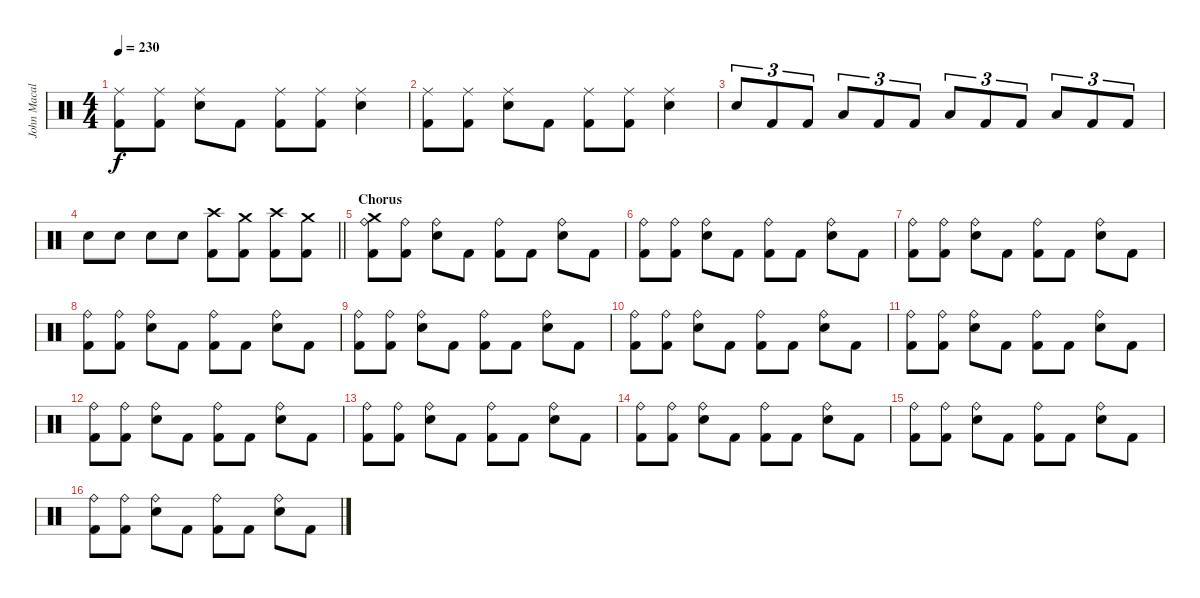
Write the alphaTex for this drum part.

\track ("John Macaluso" "John Macal") {instrument percussion}
\staff {score}
\articulation defaults
\ts (4 4)
\tempo 230
\clef neutral
\ks c
("Ride (middle)" "Kick (hit) 2").8{dy f} ("Ride (middle)" "Kick (hit) 2").8 ("Ride (middle)" "Snare (hit) 2").8 "Kick (hit) 2".8 ("Ride (middle)" "Kick (hit) 2").8 ("Ride (middle)" "Kick (hit) 2").8 ("Ride (middle)" "Snare (hit) 2").4 |
("Ride (middle)" "Kick (hit) 2").8 ("Ride (middle)" "Kick (hit) 2").8 ("Ride (middle)" "Snare (hit) 2").8 "Kick (hit) 2".8 ("Ride (middle)" "Kick (hit) 2").8 ("Ride (middle)" "Kick (hit) 2").8 ("Ride (middle)" "Snare (hit) 2").4 |
"Snare (hit) 2".8{tu (3 2)} "Kick (hit) 2".8{tu (3 2)} "Kick (hit) 2".8{tu (3 2)} "Low Tom (hit)".8{tu (3 2)} "Kick (hit) 2".8{tu (3 2)} "Kick (hit) 2".8{tu (3 2)} "Low Tom (hit)".8{tu (3 2)} "Kick (hit) 2".8{tu (3 2)} "Kick (hit) 2".8{tu (3 2)} "Low Tom (hit)".8{tu (3 2)} "Kick (hit) 2".8{tu (3 2)} "Kick (hit) 2".8{tu (3 2)} |
\barLineRight lightlight "Snare (hit) 2".8 "Snare (hit) 2".8 "Snare (hit) 2".8 "Snare (hit) 2".8
("Crash high (hit)" "Kick (hit) 2").8 ("Crash medium (hit)" "Kick (hit) 2").8 ("Crash high (hit)" "Kick (hit) 2").8 ("Crash medium (hit)" "Kick (hit) 2").8 |
\section ("" "Chorus")
("Crash medium (hit)" "Ride (bell)" "Kick (hit) 2").8 ("Ride (bell)" "Kick (hit) 2").8 ("Ride (bell)" "Snare (hit) 2").8 "Kick (hit) 2".8 ("Ride (bell)" "Kick (hit) 2").8 "Kick (hit) 2".8 ("Ride (bell)" "Snare (hit) 2").8 "Kick (hit) 2".8 |
("Ride (bell)" "Kick (hit) 2").8 ("Ride (bell)" "Kick (hit) 2").8 ("Ride (bell)" "Snare (hit) 2").8 "Kick (hit) 2".8 ("Ride (bell)" "Kick (hit) 2").8 "Kick (hit) 2".8 ("Ride (bell)" "Snare (hit) 2").8 "Kick (hit) 2".8 |
("Ride (bell)" "Kick (hit) 2").8 ("Ride (bell)" "Kick (hit) 2").8 ("Ride (bell)" "Snare (hit) 2").8 "Kick (hit) 2".8 ("Ride (bell)" "Kick (hit) 2").8 "Kick (hit) 2".8 ("Ride (bell)" "Snare (hit) 2").8 "Kick (hit) 2".8 |
("Ride (bell)" "Kick (hit) 2").8 ("Ride (bell)" "Kick (hit) 2").8 ("Ride (bell)" "Snare (hit) 2").8 "Kick (hit) 2".8 ("Ride (bell)" "Kick (hit) 2").8 "Kick (hit) 2".8 ("Ride (bell)" "Snare (hit) 2").8 "Kick (hit) 2".8 |
("Ride (bell)" "Kick (hit) 2").8 ("Ride (bell)" "Kick (hit) 2").8 ("Ride (bell)" "Snare (hit) 2").8 "Kick (hit) 2".8 ("Ride (bell)" "Kick (hit) 2").8 "Kick (hit) 2".8 ("Ride (bell)" "Snare (hit) 2").8 "Kick (hit) 2".8 |
("Ride (bell)" "Kick (hit) 2").8 ("Ride (bell)" "Kick (hit) 2").8 ("Ride (bell)" "Snare (hit) 2").8 "Kick (hit) 2".8 ("Ride (bell)" "Kick (hit) 2").8 "Kick (hit) 2".8 ("Ride (bell)" "Snare (hit) 2").8 "Kick (hit) 2".8 |
("Ride (bell)" "Kick (hit) 2").8 ("Ride (bell)" "Kick (hit) 2").8 ("Ride (bell)" "Snare (hit) 2").8 "Kick (hit) 2".8 ("Ride (bell)" "Kick (hit) 2").8 "Kick (hit) 2".8 ("Ride (bell)" "Snare (hit) 2").8 "Kick (hit) 2".8 |
("Ride (bell)" "Kick (hit) 2").8 ("Ride (bell)" "Kick (hit) 2").8 ("Ride (bell)" "Snare (hit) 2").8 "Kick (hit) 2".8 ("Ride (bell)" "Kick (hit) 2").8 "Kick (hit) 2".8 ("Ride (bell)" "Snare (hit) 2").8 "Kick (hit) 2".8 |
("Ride (bell)" "Kick (hit) 2").8 ("Ride (bell)" "Kick (hit) 2").8 ("Ride (bell)" "Snare (hit) 2").8 "Kick (hit) 2".8 ("Ride (bell)" "Kick (hit) 2").8 "Kick (hit) 2".8 ("Ride (bell)" "Snare (hit) 2").8 "Kick (hit) 2".8 |
("Ride (bell)" "Kick (hit) 2").8 ("Ride (bell)" "Kick (hit) 2").8 ("Ride (bell)" "Snare (hit) 2").8 "Kick (hit) 2".8 ("Ride (bell)" "Kick (hit) 2").8 "Kick (hit) 2".8 ("Ride (bell)" "Snare (hit) 2").8 "Kick (hit) 2".8 |
("Ride (bell)" "Kick (hit) 2").8 ("Ride (bell)" "Kick (hit) 2").8 ("Ride (bell)" "Snare (hit) 2").8 "Kick (hit) 2".8 ("Ride (bell)" "Kick (hit) 2").8 "Kick (hit) 2".8 ("Ride (bell)" "Snare (hit) 2").8 "Kick (hit) 2".8 |
("Ride (bell)" "Kick (hit) 2").8 ("Ride (bell)" "Kick (hit) 2").8 ("Ride (bell)" "Snare (hit) 2").8 "Kick (hit) 2".8 ("Ride (bell)" "Kick (hit) 2").8 "Kick (hit) 2".8 ("Ride (bell)" "Snare (hit) 2").8 "Kick (hit) 2".8
